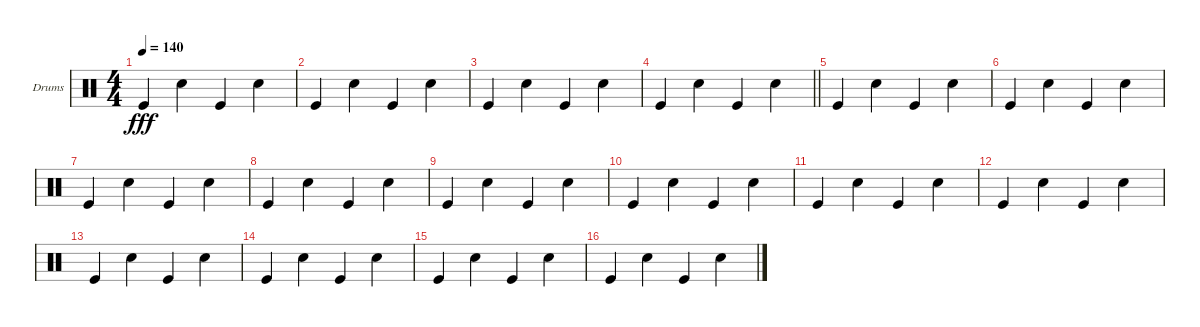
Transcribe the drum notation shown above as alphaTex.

\bracketExtendMode groupsimilarinstruments
\firstSystemTrackNameOrientation horizontal
\otherSystemsTrackNameOrientation horizontal
\track ("Drumkit" "Drums") {instrument percussion}
\staff {score}
\articulation defaults
\ts (4 4)
\tempo 140
\clef neutral
\ks c "Kick (hit)".4{dy fff} "Snare (hit) 2".4 "Kick (hit)".4 "Snare (hit) 2".4
|
"Kick (hit)".4 "Snare (hit) 2".4 "Kick (hit)".4 "Snare (hit) 2".4 |
"Kick (hit)".4 "Snare (hit) 2".4 "Kick (hit)".4 "Snare (hit) 2".4 |
\barLineRight lightlight "Kick (hit)".4 "Snare (hit) 2".4 "Kick (hit)".4 "Snare (hit) 2".4
|
"Kick (hit)".4 "Snare (hit) 2".4 "Kick (hit)".4 "Snare (hit) 2".4 |
"Kick (hit)".4 "Snare (hit) 2".4 "Kick (hit)".4 "Snare (hit) 2".4 |
"Kick (hit)".4 "Snare (hit) 2".4 "Kick (hit)".4 "Snare (hit) 2".4 |
"Kick (hit)".4 "Snare (hit) 2".4 "Kick (hit)".4 "Snare (hit) 2".4 |
"Kick (hit)".4 "Snare (hit) 2".4 "Kick (hit)".4 "Snare (hit) 2".4 |
"Kick (hit)".4 "Snare (hit) 2".4 "Kick (hit)".4 "Snare (hit) 2".4 |
"Kick (hit)".4 "Snare (hit) 2".4 "Kick (hit)".4 "Snare (hit) 2".4 |
"Kick (hit)".4 "Snare (hit) 2".4 "Kick (hit)".4 "Snare (hit) 2".4 |
"Kick (hit)".4 "Snare (hit) 2".4 "Kick (hit)".4 "Snare (hit) 2".4 |
"Kick (hit)".4 "Snare (hit) 2".4 "Kick (hit)".4 "Snare (hit) 2".4 |
"Kick (hit)".4 "Snare (hit) 2".4 "Kick (hit)".4 "Snare (hit) 2".4 |
"Kick (hit)".4 "Snare (hit) 2".4 "Kick (hit)".4 "Snare (hit) 2".4
